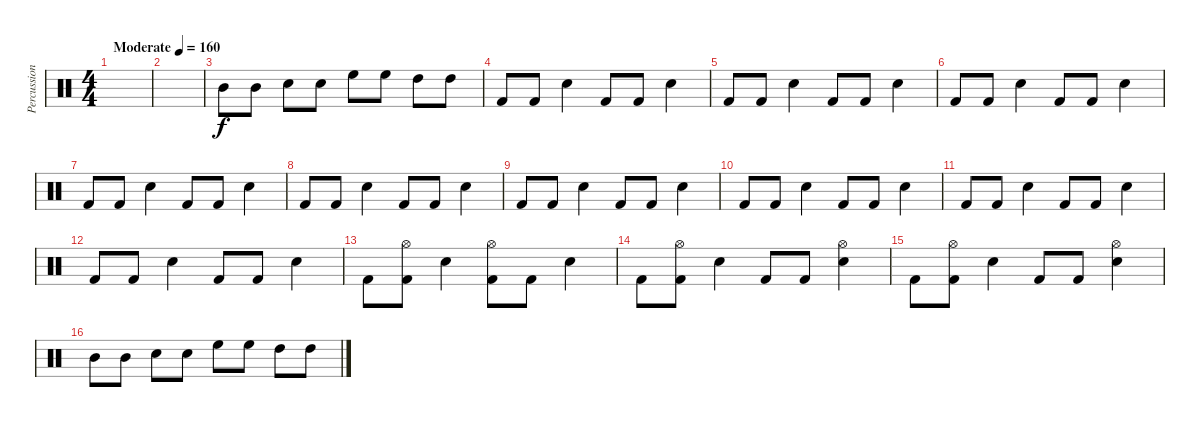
\track ("Percussion" "Percussion") {instrument percussion}
\staff {score}
\articulation defaults
\ts (4 4)
\tempo (160 "Moderate")
\clef neutral
\ks c
|
|
"Mid Tom (hit)".8 "Mid Tom (hit)".8 "Snare (hit) 2".8 "Snare (hit) 2".8 "High Floor Tom (hit)".8 "High Floor Tom (hit)".8 "High Tom (hit)".8 "High Tom (hit)".8 |
"Kick (hit) 2".8 "Kick (hit) 2".8 "Snare (hit) 2".4 "Kick (hit) 2".8 "Kick (hit) 2".8 "Snare (hit) 2".4 |
"Kick (hit) 2".8 "Kick (hit) 2".8 "Snare (hit) 2".4 "Kick (hit) 2".8 "Kick (hit) 2".8 "Snare (hit) 2".4 |
"Kick (hit) 2".8 "Kick (hit) 2".8 "Snare (hit) 2".4 "Kick (hit) 2".8 "Kick (hit) 2".8 "Snare (hit) 2".4 |
"Kick (hit) 2".8 "Kick (hit) 2".8 "Snare (hit) 2".4 "Kick (hit) 2".8 "Kick (hit) 2".8 "Snare (hit) 2".4 |
"Kick (hit) 2".8 "Kick (hit) 2".8 "Snare (hit) 2".4 "Kick (hit) 2".8 "Kick (hit) 2".8 "Snare (hit) 2".4 |
"Kick (hit) 2".8 "Kick (hit) 2".8 "Snare (hit) 2".4 "Kick (hit) 2".8 "Kick (hit) 2".8 "Snare (hit) 2".4 |
"Kick (hit) 2".8 "Kick (hit) 2".8 "Snare (hit) 2".4 "Kick (hit) 2".8 "Kick (hit) 2".8 "Snare (hit) 2".4 |
"Kick (hit) 2".8 "Kick (hit) 2".8 "Snare (hit) 2".4 "Kick (hit) 2".8 "Kick (hit) 2".8 "Snare (hit) 2".4 |
"Kick (hit) 2".8 "Kick (hit) 2".8 "Snare (hit) 2".4 "Kick (hit) 2".8 "Kick (hit) 2".8 "Snare (hit) 2".4 |
"Kick (hit) 2".8 ("Hi-Hat (open)" "Kick (hit) 2").8 "Snare (hit) 2".4 ("Hi-Hat (open)" "Kick (hit) 2").8 "Kick (hit) 2".8 "Snare (hit) 2".4 |
"Kick (hit) 2".8 ("Hi-Hat (open)" "Kick (hit) 2").8 "Snare (hit) 2".4 "Kick (hit) 2".8 "Kick (hit) 2".8 ("Hi-Hat (open)" "Snare (hit) 2").4 |
"Kick (hit) 2".8 ("Hi-Hat (open)" "Kick (hit) 2").8 "Snare (hit) 2".4 "Kick (hit) 2".8 "Kick (hit) 2".8 ("Hi-Hat (open)" "Snare (hit) 2").4 |
"Mid Tom (hit)".8 "Mid Tom (hit)".8 "Snare (hit) 2".8 "Snare (hit) 2".8 "High Floor Tom (hit)".8 "High Floor Tom (hit)".8 "High Tom (hit)".8 "High Tom (hit)".8
